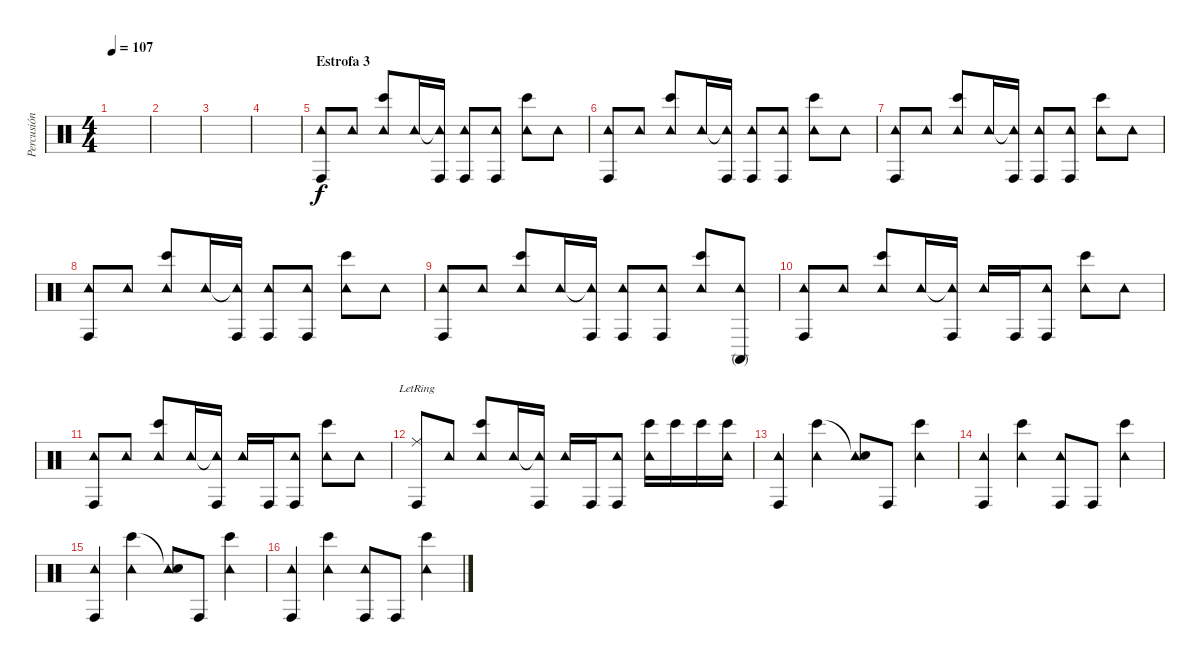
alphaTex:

\track ("Percusión" "Percusión") {instrument percussion}
\staff {score}
\articulation defaults
\ts (4 4)
\tempo 107
\clef neutral
\ks c
|
|
|
|
\section ("" "Estrofa 3")
("Tambourine (hit)" "Conga high (hit)").8 "Tambourine (hit)".8 ("Tambourine (hit)" "Bongo High (hit)").8 "Tambourine (hit)".16 ("Tambourine (hit)"{t} "Conga high (hit)").16 ("Tambourine (hit)" "Conga high (hit)").8 ("Tambourine (hit)" "Conga high (hit)").8 ("Tambourine (hit)" "Bongo High (hit)").8 "Tambourine (hit)".8 |
("Tambourine (hit)" "Conga high (hit)").8 "Tambourine (hit)".8 ("Tambourine (hit)" "Bongo High (hit)").8 "Tambourine (hit)".16 ("Tambourine (hit)"{t} "Conga high (hit)").16 ("Tambourine (hit)" "Conga high (hit)").8 ("Tambourine (hit)" "Conga high (hit)").8 ("Tambourine (hit)" "Bongo High (hit)").8 "Tambourine (hit)".8 |
("Tambourine (hit)" "Conga high (hit)").8 "Tambourine (hit)".8 ("Tambourine (hit)" "Bongo High (hit)").8 "Tambourine (hit)".16 ("Tambourine (hit)"{t} "Conga high (hit)").16 ("Tambourine (hit)" "Conga high (hit)").8 ("Tambourine (hit)" "Conga high (hit)").8 ("Tambourine (hit)" "Bongo High (hit)").8 "Tambourine (hit)".8 |
("Tambourine (hit)" "Conga high (hit)").8 "Tambourine (hit)".8 ("Tambourine (hit)" "Bongo High (hit)").8 "Tambourine (hit)".16 ("Tambourine (hit)"{t} "Conga high (hit)").16 ("Tambourine (hit)" "Conga high (hit)").8 ("Tambourine (hit)" "Conga high (hit)").8 ("Tambourine (hit)" "Bongo High (hit)").8 "Tambourine (hit)".8 |
("Tambourine (hit)" "Conga high (hit)").8 "Tambourine (hit)".8 ("Tambourine (hit)" "Bongo High (hit)").8 "Tambourine (hit)".16 ("Tambourine (hit)"{t} "Conga high (hit)").16 ("Tambourine (hit)" "Conga high (hit)").8 ("Tambourine (hit)" "Conga high (hit)").8 ("Tambourine (hit)" "Bongo High (hit)").8 ("Tambourine (hit)" "Conga high (mute)").8 |
("Tambourine (hit)" "Conga high (hit)").8 "Tambourine (hit)".8 ("Tambourine (hit)" "Bongo High (hit)").8 "Tambourine (hit)".16 ("Tambourine (hit)"{t} "Conga high (hit)").16 "Tambourine (hit)".16 "Conga high (hit)".16 ("Tambourine (hit)" "Conga high (hit)").8 ("Tambourine (hit)" "Bongo High (hit)").8 "Tambourine (hit)".8 |
("Tambourine (hit)" "Conga high (hit)").8 "Tambourine (hit)".8 ("Tambourine (hit)" "Bongo High (hit)").8 "Tambourine (hit)".16 ("Tambourine (hit)"{t} "Conga high (hit)").16 "Tambourine (hit)".16 "Conga high (hit)".16 ("Tambourine (hit)" "Conga high (hit)").8 ("Tambourine (hit)" "Bongo High (hit)").8 "Tambourine (hit)".8 |
("Ride (middle)"{lr} "Conga high (hit)").8 "Tambourine (hit)".8 ("Tambourine (hit)" "Bongo High (hit)").8 "Tambourine (hit)".16 ("Tambourine (hit)"{t} "Conga high (hit)").16 "Tambourine (hit)".16 "Conga high (hit)".16 ("Tambourine (hit)" "Conga high (hit)").8 ("Tambourine (hit)" "Bongo High (hit)").16 "Bongo High (hit)".16 "Bongo High (hit)".16 ("Tambourine (hit)" "Bongo High (hit)").16 |
("Tambourine (hit)" "Conga high (hit)").4 ("Tambourine (hit)" "Bongo High (hit)").4 ("Tambourine (hit)" "Snare (hit)"{t}).8 "Conga high (hit)".8 ("Tambourine (hit)" "Bongo High (hit)").4 |
("Tambourine (hit)" "Conga high (hit)").4 ("Tambourine (hit)" "Bongo High (hit)").4 ("Tambourine (hit)" "Conga high (hit)").8 "Conga high (hit)".8 ("Tambourine (hit)" "Bongo High (hit)").4 |
("Tambourine (hit)" "Conga high (hit)").4 ("Tambourine (hit)" "Bongo High (hit)").4 ("Tambourine (hit)" "Snare (hit)"{t}).8 "Conga high (hit)".8 ("Tambourine (hit)" "Bongo High (hit)").4 |
("Tambourine (hit)" "Conga high (hit)").4 ("Tambourine (hit)" "Bongo High (hit)").4 ("Tambourine (hit)" "Conga high (hit)").8 "Conga high (hit)".8 ("Tambourine (hit)" "Bongo High (hit)").4
